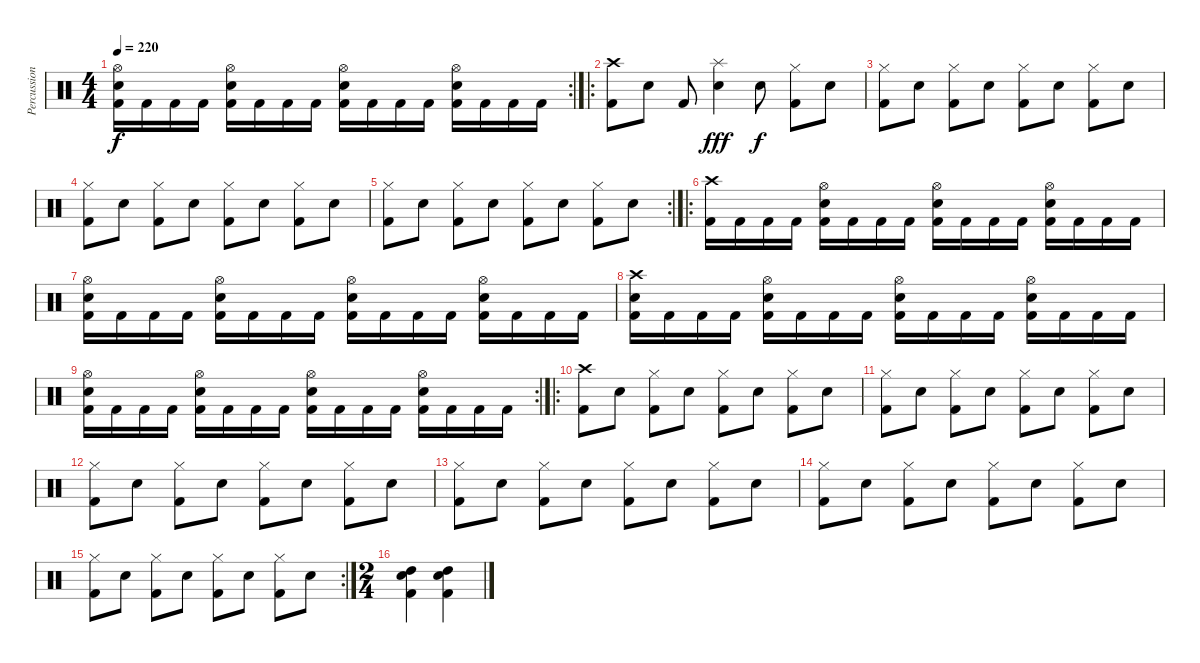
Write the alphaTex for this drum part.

\track ("Percussion" "Percussion") {instrument percussion}
\staff {score}
\articulation defaults
\rc 2
\ts (4 4)
\tempo 220
\clef neutral
\ks c
("Hi-Hat (open)" "Electric Snare (hit)" "Kick (hit) 2").16{dy f} "Kick (hit) 2".16 "Kick (hit) 2".16 "Kick (hit) 2".16 ("Hi-Hat (open)" "Electric Snare (hit)" "Kick (hit) 2").16 "Kick (hit) 2".16 "Kick (hit) 2".16 "Kick (hit) 2".16 ("Hi-Hat (open)" "Electric Snare (hit)" "Kick (hit) 2").16 "Kick (hit) 2".16 "Kick (hit) 2".16 "Kick (hit) 2".16 ("Hi-Hat (open)" "Electric Snare (hit)" "Kick (hit) 2").16 "Kick (hit) 2".16 "Kick (hit) 2".16 "Kick (hit) 2".16 |
\ro
("Crash high (hit)" "Kick (hit) 2").8 "Electric Snare (hit)".8 "Kick (hit) 2".8 ("Splash (hit)" "Electric Snare (hit)").4{dy fff} "Electric Snare (hit)".8{dy f} ("Hi-Hat (closed)" "Kick (hit) 2").8 "Electric Snare (hit)".8 |
("Hi-Hat (closed)" "Kick (hit) 2").8 "Electric Snare (hit)".8 ("Hi-Hat (closed)" "Kick (hit) 2").8 "Electric Snare (hit)".8 ("Hi-Hat (closed)" "Kick (hit) 2").8 "Electric Snare (hit)".8 ("Hi-Hat (closed)" "Kick (hit) 2").8 "Electric Snare (hit)".8 |
("Hi-Hat (closed)" "Kick (hit) 2").8 "Electric Snare (hit)".8 ("Hi-Hat (closed)" "Kick (hit) 2").8 "Electric Snare (hit)".8 ("Hi-Hat (closed)" "Kick (hit) 2").8 "Electric Snare (hit)".8 ("Hi-Hat (closed)" "Kick (hit) 2").8 "Electric Snare (hit)".8 |
\rc 2
("Hi-Hat (closed)" "Kick (hit) 2").8 "Electric Snare (hit)".8 ("Hi-Hat (closed)" "Kick (hit) 2").8 "Electric Snare (hit)".8 ("Hi-Hat (closed)" "Kick (hit) 2").8 "Electric Snare (hit)".8 ("Hi-Hat (closed)" "Kick (hit) 2").8 "Electric Snare (hit)".8 |
\ro
("Crash high (hit)" "Kick (hit) 2").16 "Kick (hit) 2".16 "Kick (hit) 2".16 "Kick (hit) 2".16 ("Hi-Hat (open)" "Electric Snare (hit)" "Kick (hit) 2").16 "Kick (hit) 2".16 "Kick (hit) 2".16 "Kick (hit) 2".16 ("Hi-Hat (open)" "Electric Snare (hit)" "Kick (hit) 2").16 "Kick (hit) 2".16 "Kick (hit) 2".16 "Kick (hit) 2".16 ("Hi-Hat (open)" "Electric Snare (hit)" "Kick (hit) 2").16 "Kick (hit) 2".16 "Kick (hit) 2".16 "Kick (hit) 2".16 |
("Hi-Hat (open)" "Electric Snare (hit)" "Kick (hit) 2").16 "Kick (hit) 2".16 "Kick (hit) 2".16 "Kick (hit) 2".16 ("Hi-Hat (open)" "Electric Snare (hit)" "Kick (hit) 2").16 "Kick (hit) 2".16 "Kick (hit) 2".16 "Kick (hit) 2".16 ("Hi-Hat (open)" "Electric Snare (hit)" "Kick (hit) 2").16 "Kick (hit) 2".16 "Kick (hit) 2".16 "Kick (hit) 2".16 ("Hi-Hat (open)" "Electric Snare (hit)" "Kick (hit) 2").16 "Kick (hit) 2".16 "Kick (hit) 2".16 "Kick (hit) 2".16 |
("Crash high (hit)" "Electric Snare (hit)" "Kick (hit) 2").16 "Kick (hit) 2".16 "Kick (hit) 2".16 "Kick (hit) 2".16 ("Hi-Hat (open)" "Electric Snare (hit)" "Kick (hit) 2").16 "Kick (hit) 2".16 "Kick (hit) 2".16 "Kick (hit) 2".16 ("Hi-Hat (open)" "Electric Snare (hit)" "Kick (hit) 2").16 "Kick (hit) 2".16 "Kick (hit) 2".16 "Kick (hit) 2".16 ("Hi-Hat (open)" "Electric Snare (hit)" "Kick (hit) 2").16 "Kick (hit) 2".16 "Kick (hit) 2".16 "Kick (hit) 2".16 |
\rc 2
("Hi-Hat (open)" "Electric Snare (hit)" "Kick (hit) 2").16 "Kick (hit) 2".16 "Kick (hit) 2".16 "Kick (hit) 2".16 ("Hi-Hat (open)" "Electric Snare (hit)" "Kick (hit) 2").16 "Kick (hit) 2".16 "Kick (hit) 2".16 "Kick (hit) 2".16 ("Hi-Hat (open)" "Electric Snare (hit)" "Kick (hit) 2").16 "Kick (hit) 2".16 "Kick (hit) 2".16 "Kick (hit) 2".16 ("Hi-Hat (open)" "Electric Snare (hit)" "Kick (hit) 2").16 "Kick (hit) 2".16 "Kick (hit) 2".16 "Kick (hit) 2".16 |
\ro
("Crash high (hit)" "Kick (hit) 2").8 "Electric Snare (hit)".8 ("Hi-Hat (closed)" "Kick (hit) 2").8 "Electric Snare (hit)".8 ("Hi-Hat (closed)" "Kick (hit) 2").8 "Electric Snare (hit)".8 ("Hi-Hat (closed)" "Kick (hit) 2").8 "Electric Snare (hit)".8 |
("Hi-Hat (closed)" "Kick (hit) 2").8 "Electric Snare (hit)".8 ("Hi-Hat (closed)" "Kick (hit) 2").8 "Electric Snare (hit)".8 ("Hi-Hat (closed)" "Kick (hit) 2").8 "Electric Snare (hit)".8 ("Hi-Hat (closed)" "Kick (hit) 2").8 "Electric Snare (hit)".8 |
("Hi-Hat (closed)" "Kick (hit) 2").8 "Electric Snare (hit)".8 ("Hi-Hat (closed)" "Kick (hit) 2").8 "Electric Snare (hit)".8 ("Hi-Hat (closed)" "Kick (hit) 2").8 "Electric Snare (hit)".8 ("Hi-Hat (closed)" "Kick (hit) 2").8 "Electric Snare (hit)".8 |
("Hi-Hat (closed)" "Kick (hit) 2").8 "Electric Snare (hit)".8 ("Hi-Hat (closed)" "Kick (hit) 2").8 "Electric Snare (hit)".8 ("Hi-Hat (closed)" "Kick (hit) 2").8 "Electric Snare (hit)".8 ("Hi-Hat (closed)" "Kick (hit) 2").8 "Electric Snare (hit)".8 |
("Hi-Hat (closed)" "Kick (hit) 2").8 "Electric Snare (hit)".8 ("Hi-Hat (closed)" "Kick (hit) 2").8 "Electric Snare (hit)".8 ("Hi-Hat (closed)" "Kick (hit) 2").8 "Electric Snare (hit)".8 ("Hi-Hat (closed)" "Kick (hit) 2").8 "Electric Snare (hit)".8 |
\rc 2
("Hi-Hat (closed)" "Kick (hit) 2").8 "Electric Snare (hit)".8 ("Hi-Hat (closed)" "Kick (hit) 2").8 "Electric Snare (hit)".8 ("Hi-Hat (closed)" "Kick (hit) 2").8 "Electric Snare (hit)".8 ("Hi-Hat (closed)" "Kick (hit) 2").8 "Electric Snare (hit)".8 |
\ts (2 4)
("Electric Snare (hit)" "High Tom (hit)" "Kick (hit) 2").4 ("Electric Snare (hit)" "High Tom (hit)" "Kick (hit) 2").4
